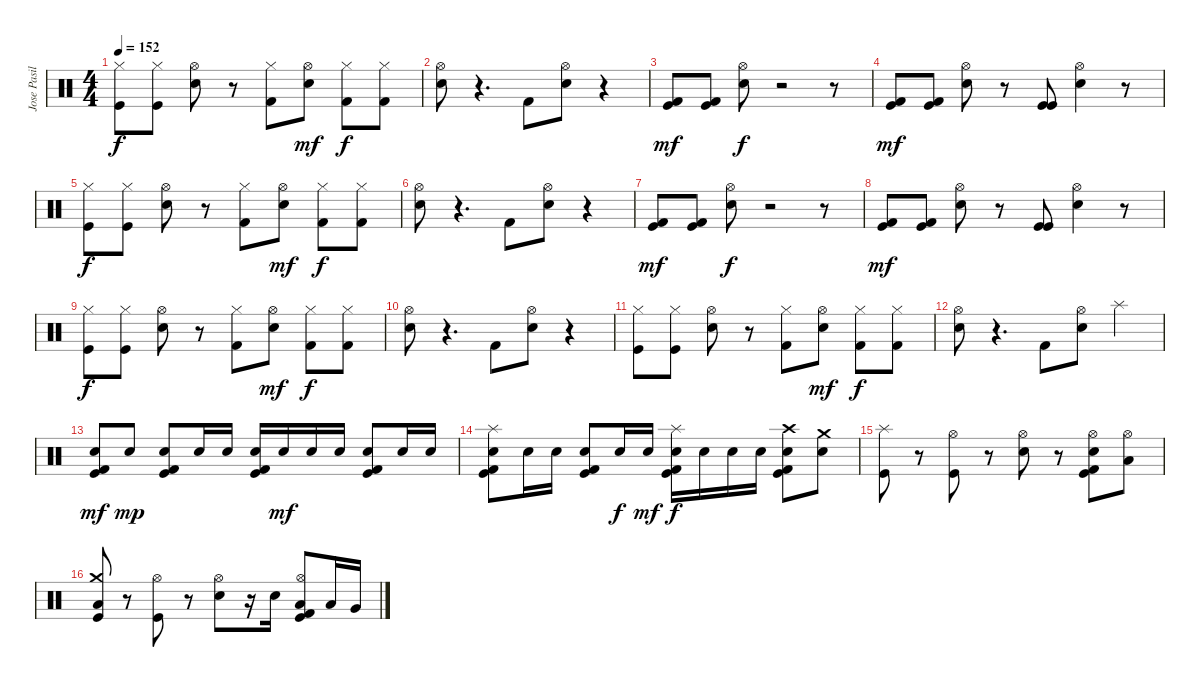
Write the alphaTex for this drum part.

\track ("Jose Pasillas" "Jose Pasil") {instrument percussion}
\staff {score}
\articulation defaults
\ts (4 4)
\tempo 152
\clef neutral
\ks c
("Kick (hit)" "Hi-Hat (closed)").8{dy f} ("Kick (hit)" "Hi-Hat (closed)").8 ("Electric Snare (hit)" "Hi-Hat (open)").8 r.8 ("Kick (hit) 2" "Hi-Hat (closed)").8 ("Electric Snare (hit)" "Hi-Hat (open)").8{dy mf} ("Kick (hit) 2" "Hi-Hat (closed)").8{dy f} ("Kick (hit) 2" "Hi-Hat (closed)").8 |
("Hi-Hat (open)" "Electric Snare (hit)").8 r.4{d} "Kick (hit) 2".8 ("Electric Snare (hit)" "Hi-Hat (open)").8 r.4 |
("Kick (hit)" "Kick (hit) 2").8{dy mf} ("Kick (hit)" "Kick (hit) 2").8 ("Electric Snare (hit)" "Hi-Hat (open)").8{dy f} r.2 r.8 |
("Kick (hit)" "Kick (hit) 2").8{dy mf} ("Kick (hit)" "Kick (hit) 2").8 ("Electric Snare (hit)" "Hi-Hat (open)").8 r.8 ("Kick (hit)" "Kick (hit)").8 ("Electric Snare (hit)" "Hi-Hat (open)").4 r.8 |
("Kick (hit)" "Hi-Hat (closed)").8{dy f} ("Kick (hit)" "Hi-Hat (closed)").8 ("Electric Snare (hit)" "Hi-Hat (open)").8 r.8 ("Kick (hit) 2" "Hi-Hat (closed)").8 ("Electric Snare (hit)" "Hi-Hat (open)").8{dy mf} ("Kick (hit) 2" "Hi-Hat (closed)").8{dy f} ("Kick (hit) 2" "Hi-Hat (closed)").8 |
("Hi-Hat (open)" "Electric Snare (hit)").8 r.4{d} "Kick (hit) 2".8 ("Electric Snare (hit)" "Hi-Hat (open)").8 r.4 |
("Kick (hit)" "Kick (hit) 2").8{dy mf} ("Kick (hit)" "Kick (hit) 2").8 ("Electric Snare (hit)" "Hi-Hat (open)").8{dy f} r.2 r.8 |
("Kick (hit)" "Kick (hit) 2").8{dy mf} ("Kick (hit)" "Kick (hit) 2").8 ("Electric Snare (hit)" "Hi-Hat (open)").8 r.8 ("Kick (hit)" "Kick (hit)").8 ("Electric Snare (hit)" "Hi-Hat (open)").4 r.8 |
("Kick (hit)" "Hi-Hat (closed)").8{dy f} ("Kick (hit)" "Hi-Hat (closed)").8 ("Electric Snare (hit)" "Hi-Hat (open)").8 r.8 ("Kick (hit) 2" "Hi-Hat (closed)").8 ("Electric Snare (hit)" "Hi-Hat (open)").8{dy mf} ("Kick (hit) 2" "Hi-Hat (closed)").8{dy f} ("Kick (hit) 2" "Hi-Hat (closed)").8 |
("Hi-Hat (open)" "Electric Snare (hit)").8 r.4{d} "Kick (hit) 2".8 ("Electric Snare (hit)" "Hi-Hat (open)").8 r.4 |
("Kick (hit)" "Hi-Hat (closed)").8 ("Kick (hit)" "Hi-Hat (closed)").8 ("Electric Snare (hit)" "Hi-Hat (open)").8 r.8 ("Kick (hit) 2" "Hi-Hat (closed)").8 ("Electric Snare (hit)" "Hi-Hat (open)").8{dy mf} ("Kick (hit) 2" "Hi-Hat (closed)").8{dy f} ("Kick (hit) 2" "Hi-Hat (closed)").8 |
("Hi-Hat (open)" "Electric Snare (hit)").8 r.4{d} "Kick (hit) 2".8 ("Electric Snare (hit)" "Hi-Hat (open)").8 "Splash (hit)".4 |
("Electric Snare (hit)" "Kick (hit) 2" "Kick (hit)").8{dy mf} "Electric Snare (hit)".8{dy mp} ("Electric Snare (hit)" "Kick (hit) 2" "Kick (hit)").8 "Electric Snare (hit)".16 "Electric Snare (hit)".16 ("Electric Snare (hit)" "Kick (hit) 2" "Kick (hit)").16 "Electric Snare (hit)".16{dy mf} "Electric Snare (hit)".16 "Electric Snare (hit)".16 ("Electric Snare (hit)" "Kick (hit) 2" "Kick (hit)").8 "Electric Snare (hit)".16 "Electric Snare (hit)".16 |
("Electric Snare (hit)" "Splash (hit)" "Kick (hit) 2" "Kick (hit)").8 "Electric Snare (hit)".16 "Electric Snare (hit)".16 ("Electric Snare (hit)" "Kick (hit) 2" "Kick (hit)").8 "Electric Snare (hit)".16{dy f} "Electric Snare (hit)".16{dy mf} ("Electric Snare (hit)" "Splash (hit)" "Kick (hit) 2" "Kick (hit)").16{dy f} "Electric Snare (hit)".16 "Electric Snare (hit)".16 "Electric Snare (hit)".16 ("Electric Snare (hit)" "Crash high (hit)" "Kick (hit) 2" "Kick (hit)").8 ("Electric Snare (hit)" "Crash medium (hit)").8 |
("Splash (hit)" "Kick (hit)").8 r.8 ("Hi-Hat (open)" "Kick (hit)").8 r.8 ("Hi-Hat (open)" "Electric Snare (hit)").8 r.8 ("Hi-Hat (open)" "Electric Snare (hit)" "Kick (hit) 2" "Kick (hit)").8 ("Hi-Hat (open)" "Low Tom (hit)").8 |
("Crash medium (hit)" "Low Floor Tom (hit)" "Kick (hit)").8 r.8 ("Hi-Hat (open)" "Kick (hit)").8 r.8 ("Hi-Hat (open)" "Electric Snare (hit)").8 r.16 "Electric Snare (hit)".16 ("Hi-Hat (open)" "Low Tom (hit)" "Kick (hit) 2" "Kick (hit)").8 "Low Floor Tom (hit)".16 "Very Low Tom (hit)".16
